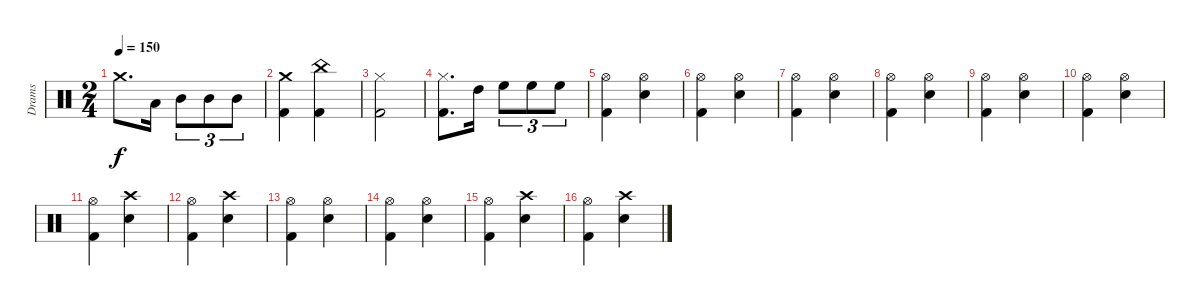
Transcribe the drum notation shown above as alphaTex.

\track ("Drams" "Drams") {instrument percussion}
\staff {score}
\articulation defaults
\ts (2 4)
\tempo 150
\clef neutral
\ks aminor "Crash medium (hit)".8{d dy f} "Low Tom (hit)".16 "Mid Tom (hit)".8{tu (3 2)} "Mid Tom (hit)".8{tu (3 2)} "Mid Tom (hit)".8{tu (3 2)}
|
("Crash medium (hit)" "Kick (hit) 2").4 ("China (hit)" "Kick (hit) 2").4 |
("Hi-Hat (closed)" "Kick (hit) 2").2 |
("Hi-Hat (closed)" "Kick (hit) 2").8{d} "High Tom (hit)".16 "High Floor Tom (hit)".8{tu (3 2)} "High Floor Tom (hit)".8{tu (3 2)} "High Floor Tom (hit)".8{tu (3 2)} |
("Hi-Hat (open)" "Kick (hit) 2").4 ("Hi-Hat (open)" "Electric Snare (hit)").4 |
("Hi-Hat (open)" "Kick (hit) 2").4 ("Hi-Hat (open)" "Electric Snare (hit)").4 |
("Hi-Hat (open)" "Kick (hit) 2").4 ("Hi-Hat (open)" "Electric Snare (hit)").4 |
("Hi-Hat (open)" "Kick (hit) 2").4 ("Hi-Hat (open)" "Electric Snare (hit)").4 |
("Hi-Hat (open)" "Kick (hit) 2").4 ("Hi-Hat (open)" "Electric Snare (hit)").4 |
("Hi-Hat (open)" "Kick (hit) 2").4 ("Hi-Hat (open)" "Electric Snare (hit)").4 |
("Hi-Hat (open)" "Kick (hit) 2").4 ("Crash high (hit)" "Electric Snare (hit)").4 |
("Hi-Hat (open)" "Kick (hit) 2").4 ("Crash high (hit)" "Electric Snare (hit)").4 |
("Hi-Hat (open)" "Kick (hit) 2").4 ("Hi-Hat (open)" "Electric Snare (hit)").4 |
("Hi-Hat (open)" "Kick (hit) 2").4 ("Hi-Hat (open)" "Electric Snare (hit)").4 |
("Hi-Hat (open)" "Kick (hit) 2").4 ("Crash high (hit)" "Electric Snare (hit)").4 |
("Hi-Hat (open)" "Kick (hit) 2").4 ("Crash high (hit)" "Electric Snare (hit)").4
